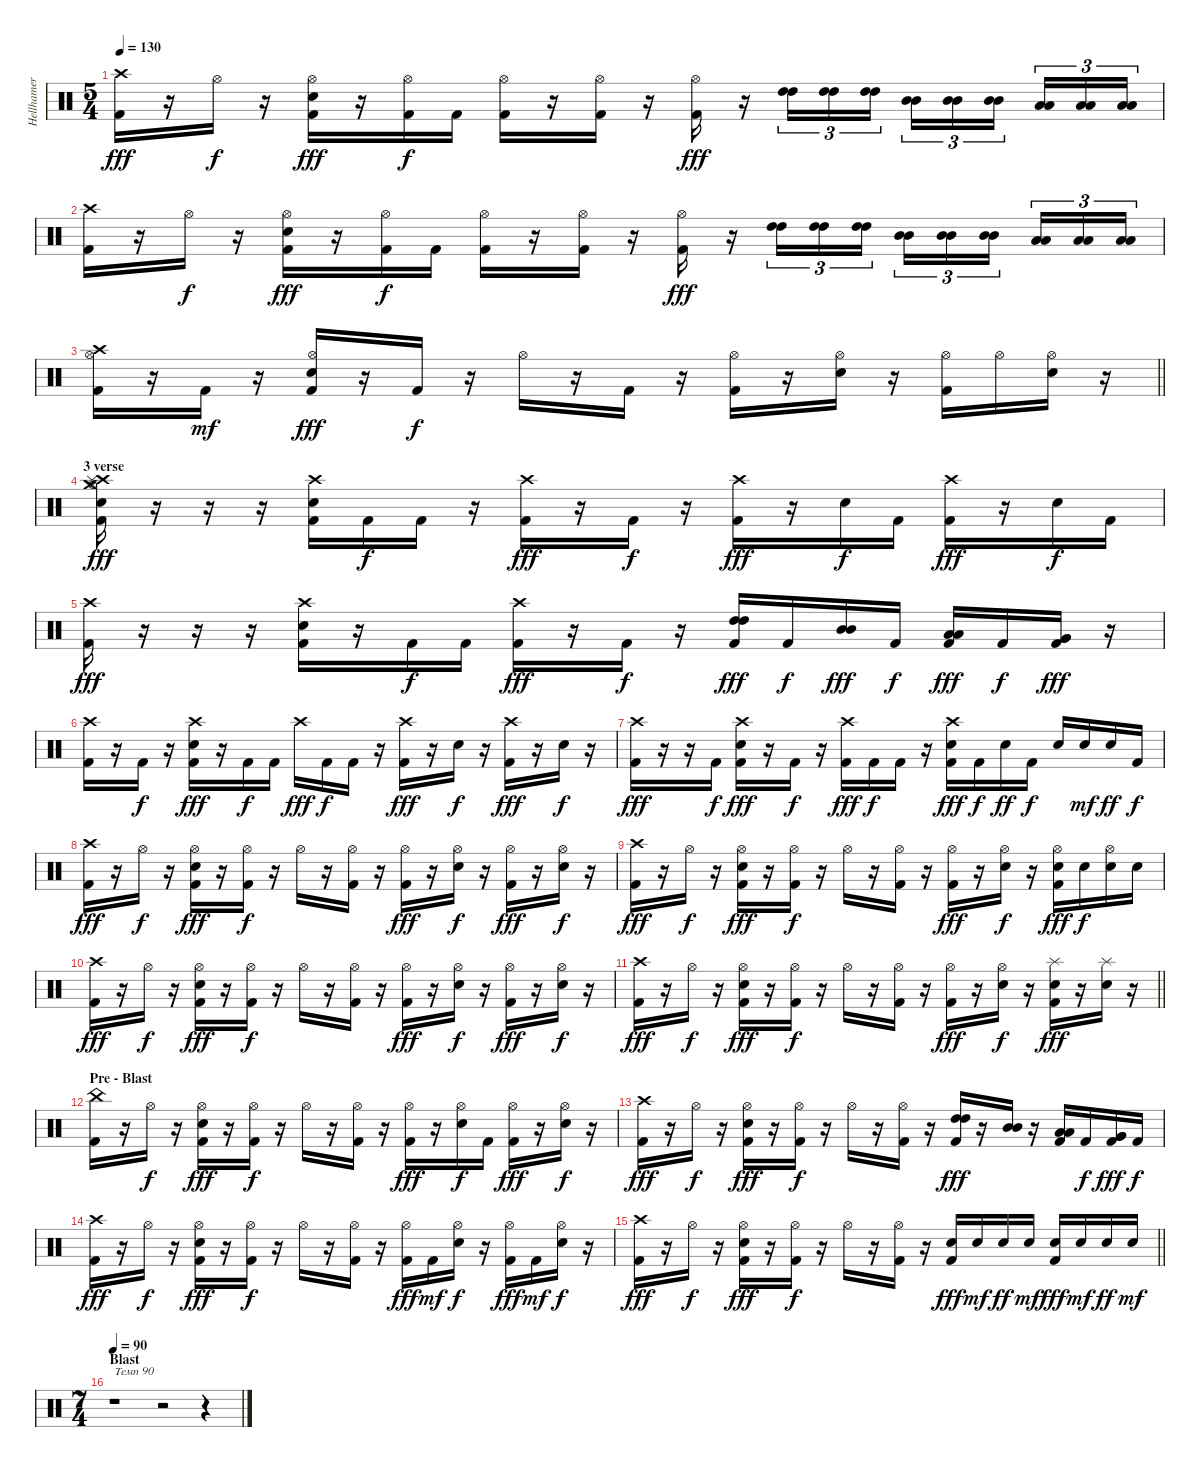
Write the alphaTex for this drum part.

\track ("Hellhamer" "Hellhamer") {instrument percussion}
\staff {score}
\articulation defaults
\ts (5 4)
\tempo 130
\clef neutral
\ks c
("Crash high (hit)" "Kick (hit) 2").16{dy fff} r.16 "Hi-Hat (open)".16{dy f} r.16 ("Hi-Hat (open)" "Electric Snare (hit)" "Kick (hit) 2").16{dy fff} r.16 ("Hi-Hat (open)" "Kick (hit) 2").16{dy f} "Kick (hit) 2".16 ("Hi-Hat (open)" "Kick (hit) 2").16 r.16 ("Hi-Hat (open)" "Kick (hit) 2").16 r.16 ("Hi-Hat (open)" "Kick (hit) 2").16{dy fff} r.16 ("High Tom (hit)" "High Tom (hit)").16{tu (3 2)} ("High Tom (hit)" "High Tom (hit)").16{tu (3 2)} ("High Tom (hit)" "High Tom (hit)").16{tu (3 2)} ("Mid Tom (hit)" "Mid Tom (hit)").16{tu (3 2)} ("Mid Tom (hit)" "Mid Tom (hit)").16{tu (3 2)} ("Mid Tom (hit)" "Mid Tom (hit)").16{tu (3 2) beam splitsecondary} ("Low Tom (hit)" "Low Tom (hit)").16{tu (3 2)} ("Low Tom (hit)" "Low Tom (hit)").16{tu (3 2)} ("Low Tom (hit)" "Low Tom (hit)").16{tu (3 2)} |
("Crash high (hit)" "Kick (hit) 2").16 r.16 "Hi-Hat (open)".16{dy f} r.16 ("Hi-Hat (open)" "Electric Snare (hit)" "Kick (hit) 2").16{dy fff} r.16 ("Hi-Hat (open)" "Kick (hit) 2").16{dy f} "Kick (hit) 2".16 ("Hi-Hat (open)" "Kick (hit) 2").16 r.16 ("Hi-Hat (open)" "Kick (hit) 2").16 r.16 ("Hi-Hat (open)" "Kick (hit) 2").16{dy fff} r.16 ("High Tom (hit)" "High Tom (hit)").16{tu (3 2)} ("High Tom (hit)" "High Tom (hit)").16{tu (3 2)} ("High Tom (hit)" "High Tom (hit)").16{tu (3 2)} ("Mid Tom (hit)" "Mid Tom (hit)").16{tu (3 2)} ("Mid Tom (hit)" "Mid Tom (hit)").16{tu (3 2)} ("Mid Tom (hit)" "Mid Tom (hit)").16{tu (3 2) beam splitsecondary} ("Low Tom (hit)" "Low Tom (hit)").16{tu (3 2)} ("Low Tom (hit)" "Low Tom (hit)").16{tu (3 2)} ("Low Tom (hit)" "Low Tom (hit)").16{tu (3 2)} |
\barLineRight lightlight
("Crash high (hit)" "Hi-Hat (open)" "Kick (hit) 2").16 r.16 "Kick (hit) 2".16{dy mf} r.16 ("Hi-Hat (open)" "Electric Snare (hit)" "Kick (hit) 2").16{dy fff} r.16 "Kick (hit) 2".16{dy f} r.16 "Hi-Hat (open)".16 r.16 "Kick (hit) 2".16 r.16 ("Hi-Hat (open)" "Kick (hit) 2").16 r.16 ("Hi-Hat (open)" "Electric Snare (hit)").16 r.16 ("Hi-Hat (open)" "Kick (hit) 2").16 "Hi-Hat (open)".16 ("Hi-Hat (open)" "Electric Snare (hit)").16 r.16 |
\section ("" "3 verse")
("Crash high (hit)" "Crash medium (hit)" "Splash (hit)" "Electric Snare (hit)" "Hi-Hat (open)" "Kick (hit) 2").16{dy fff} r.16 r.16 r.16 ("Crash high (hit)" "Electric Snare (hit)" "Kick (hit) 2").16 "Kick (hit) 2".16{dy f} "Kick (hit) 2".16 r.16 ("Crash high (hit)" "Kick (hit) 2").16{dy fff} r.16 "Kick (hit) 2".16{dy f} r.16 ("Crash high (hit)" "Kick (hit) 2").16{dy fff} r.16 "Electric Snare (hit)".16{dy f} "Kick (hit) 2".16 ("Crash high (hit)" "Kick (hit) 2").16{dy fff} r.16 "Electric Snare (hit)".16{dy f} "Kick (hit) 2".16 |
("Crash high (hit)" "Kick (hit) 2").16{dy fff} r.16 r.16 r.16 ("Crash high (hit)" "Electric Snare (hit)" "Kick (hit) 2").16 r.16 "Kick (hit) 2".16{dy f} "Kick (hit) 2".16 ("Crash high (hit)" "Kick (hit) 2").16{dy fff} r.16 "Kick (hit) 2".16{dy f} r.16 ("High Tom (hit)" "High Tom (hit)" "Kick (hit) 2").16{dy fff} "Kick (hit) 2".16{dy f} ("Mid Tom (hit)" "Mid Tom (hit)").16{dy fff} "Kick (hit) 2".16{dy f} ("Low Tom (hit)" "Low Tom (hit)" "Kick (hit) 2").16{dy fff} "Kick (hit) 2".16{dy f} ("Very Low Tom (hit)" "Very Low Tom (hit)" "Kick (hit) 2").16{dy fff} r.16 |
("Crash high (hit)" "Kick (hit) 2").16 r.16 "Kick (hit) 2".16{dy f} r.16 ("Crash high (hit)" "Electric Snare (hit)" "Kick (hit) 2").16{dy fff} r.16 "Kick (hit) 2".16{dy f} "Kick (hit) 2".16 "Crash high (hit)".16{dy fff} "Kick (hit) 2".16{dy f} "Kick (hit) 2".16 r.16 ("Crash high (hit)" "Kick (hit) 2").16{dy fff} r.16 "Electric Snare (hit)".16{dy f} r.16 ("Crash high (hit)" "Kick (hit) 2").16{dy fff} r.16 "Electric Snare (hit)".16{dy f} r.16 |
("Crash high (hit)" "Kick (hit) 2").16{dy fff} r.16 r.16 "Kick (hit) 2".16{dy f} ("Crash high (hit)" "Electric Snare (hit)" "Kick (hit) 2").16{dy fff} r.16 "Kick (hit) 2".16{dy f} r.16 ("Crash high (hit)" "Kick (hit) 2").16{dy fff} "Kick (hit) 2".16{dy f} "Kick (hit) 2".16 r.16 ("Crash high (hit)" "Electric Snare (hit)" "Kick (hit) 2").16{dy fff} "Kick (hit) 2".16{dy f} "Electric Snare (hit)".16{dy ff} "Kick (hit) 2".16{dy f} "Electric Snare (hit)".16 "Electric Snare (hit)".16{dy mf} "Electric Snare (hit)".16{dy ff} "Kick (hit) 2".16{dy f} |
("Crash high (hit)" "Kick (hit) 2").16{dy fff} r.16 "Hi-Hat (open)".16{dy f} r.16 ("Hi-Hat (open)" "Electric Snare (hit)" "Kick (hit) 2").16{dy fff} r.16 ("Hi-Hat (open)" "Kick (hit) 2").16{dy f} r.16 "Hi-Hat (open)".16 r.16 ("Hi-Hat (open)" "Kick (hit) 2").16 r.16 ("Hi-Hat (open)" "Kick (hit) 2").16{dy fff} r.16 ("Hi-Hat (open)" "Electric Snare (hit)").16{dy f} r.16 ("Hi-Hat (open)" "Kick (hit) 2").16{dy fff} r.16 ("Hi-Hat (open)" "Electric Snare (hit)").16{dy f} r.16 |
("Crash high (hit)" "Kick (hit) 2").16{dy fff} r.16 "Hi-Hat (open)".16{dy f} r.16 ("Hi-Hat (open)" "Electric Snare (hit)" "Kick (hit) 2").16{dy fff} r.16 ("Hi-Hat (open)" "Kick (hit) 2").16{dy f} r.16 "Hi-Hat (open)".16 r.16 ("Hi-Hat (open)" "Kick (hit) 2").16 r.16 ("Hi-Hat (open)" "Kick (hit) 2").16{dy fff} r.16 ("Hi-Hat (open)" "Electric Snare (hit)").16{dy f} r.16 ("Hi-Hat (open)" "Electric Snare (hit)" "Kick (hit) 2").16{dy fff} "Electric Snare (hit)".16{dy f} ("Hi-Hat (open)" "Electric Snare (hit)").16 "Electric Snare (hit)".16 |
("Crash high (hit)" "Kick (hit) 2").16{dy fff} r.16 "Hi-Hat (open)".16{dy f} r.16 ("Hi-Hat (open)" "Electric Snare (hit)" "Kick (hit) 2").16{dy fff} r.16 ("Hi-Hat (open)" "Kick (hit) 2").16{dy f} r.16 "Hi-Hat (open)".16 r.16 ("Hi-Hat (open)" "Kick (hit) 2").16 r.16 ("Hi-Hat (open)" "Kick (hit) 2").16{dy fff} r.16 ("Hi-Hat (open)" "Electric Snare (hit)").16{dy f} r.16 ("Hi-Hat (open)" "Kick (hit) 2").16{dy fff} r.16 ("Hi-Hat (open)" "Electric Snare (hit)").16{dy f} r.16 |
\barLineRight lightlight
("Crash high (hit)" "Kick (hit) 2").16{dy fff} r.16 "Hi-Hat (open)".16{dy f} r.16 ("Hi-Hat (open)" "Electric Snare (hit)" "Kick (hit) 2").16{dy fff} r.16 ("Hi-Hat (open)" "Kick (hit) 2").16{dy f} r.16 "Hi-Hat (open)".16 r.16 ("Hi-Hat (open)" "Kick (hit) 2").16 r.16 ("Hi-Hat (open)" "Kick (hit) 2").16{dy fff} r.16 ("Hi-Hat (open)" "Electric Snare (hit)").16{dy f} r.16 ("Splash (hit)" "Electric Snare (hit)" "Kick (hit) 2").16{dy fff} r.16 ("Splash (hit)" "Electric Snare (hit)").16 r.16 |
\section ("" "Pre - Blast")
("China (hit)" "Kick (hit) 2").16 r.16 "Hi-Hat (open)".16{dy f} r.16 ("Hi-Hat (open)" "Electric Snare (hit)" "Kick (hit) 2").16{dy fff} r.16 ("Hi-Hat (open)" "Kick (hit) 2").16{dy f} r.16 "Hi-Hat (open)".16 r.16 ("Hi-Hat (open)" "Kick (hit) 2").16 r.16 ("Hi-Hat (open)" "Kick (hit) 2").16{dy fff} r.16 ("Hi-Hat (open)" "Electric Snare (hit)").16{dy f} "Kick (hit) 2".16 ("Hi-Hat (open)" "Kick (hit) 2").16{dy fff} r.16 ("Hi-Hat (open)" "Electric Snare (hit)").16{dy f} r.16 |
("Crash high (hit)" "Kick (hit) 2").16{dy fff} r.16 "Hi-Hat (open)".16{dy f} r.16 ("Hi-Hat (open)" "Electric Snare (hit)" "Kick (hit) 2").16{dy fff} r.16 ("Hi-Hat (open)" "Kick (hit) 2").16{dy f} r.16 "Hi-Hat (open)".16 r.16 ("Hi-Hat (open)" "Kick (hit) 2").16 r.16 ("High Tom (hit)" "High Tom (hit)" "Kick (hit) 2").16{dy fff} r.16 ("Mid Tom (hit)" "Mid Tom (hit)").16 r.16 ("Low Tom (hit)" "Low Tom (hit)" "Kick (hit) 2").16 "Kick (hit) 2".16{dy f} ("Very Low Tom (hit)" "Very Low Tom (hit)" "Kick (hit) 2").16{dy fff} "Kick (hit) 2".16{dy f} |
("Crash high (hit)" "Kick (hit) 2").16{dy fff} r.16 "Hi-Hat (open)".16{dy f} r.16 ("Hi-Hat (open)" "Electric Snare (hit)" "Kick (hit) 2").16{dy fff} r.16 ("Hi-Hat (open)" "Kick (hit) 2").16{dy f} r.16 "Hi-Hat (open)".16 r.16 ("Hi-Hat (open)" "Kick (hit) 2").16 r.16 ("Hi-Hat (open)" "Kick (hit) 2").16{dy fff} "Kick (hit) 2".16{dy mf} ("Hi-Hat (open)" "Electric Snare (hit)").16{dy f} r.16 ("Hi-Hat (open)" "Kick (hit) 2").16{dy fff} "Kick (hit) 2".16{dy mf} ("Hi-Hat (open)" "Electric Snare (hit)").16{dy f} r.16 |
\barLineRight lightlight
("Crash high (hit)" "Kick (hit) 2").16{dy fff} r.16 "Hi-Hat (open)".16{dy f} r.16 ("Hi-Hat (open)" "Electric Snare (hit)" "Kick (hit) 2").16{dy fff} r.16 ("Hi-Hat (open)" "Kick (hit) 2").16{dy f} r.16 "Hi-Hat (open)".16 r.16 ("Hi-Hat (open)" "Kick (hit) 2").16 r.16 ("Electric Snare (hit)" "Kick (hit) 2").16{dy fff} "Electric Snare (hit)".16{dy mf} "Electric Snare (hit)".16{dy ff} "Electric Snare (hit)".16{dy mf} ("Electric Snare (hit)" "Kick (hit) 2").16{dy fff} "Electric Snare (hit)".16{dy mf} "Electric Snare (hit)".16{dy ff} "Electric Snare (hit)".16{dy mf} |
\ts (7 4)
\section ("" "Blast")
\tempo 90
r.1{txt "Темп 90"} r.2 r.4
